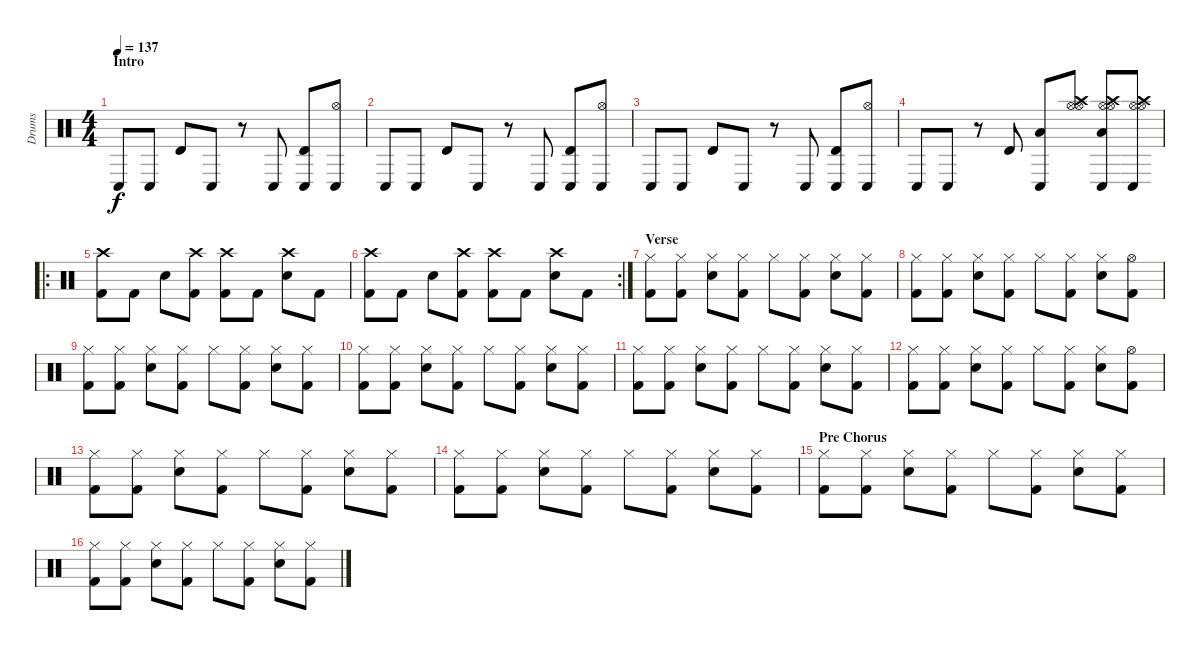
\track ("Drums" "Drums") {instrument percussion}
\staff {score}
\articulation defaults
\ts (4 4)
\section ("" "Intro")
\tempo 137
\clef neutral
\ks c "Conga low (hit)".8{dy f} "Conga low (hit)".8 "Timbale high (hit)".8 "Conga low (hit)".8
r.8 "Conga low (hit)".8 ("Conga low (hit)" "Timbale high (hit)").8 ("Conga low (hit)" "Hi-Hat (open)").8 |
"Conga low (hit)".8 "Conga low (hit)".8 "Timbale high (hit)".8 "Conga low (hit)".8 r.8 "Conga low (hit)".8 ("Conga low (hit)" "Timbale high (hit)").8 ("Conga low (hit)" "Hi-Hat (open)").8 |
"Conga low (hit)".8 "Conga low (hit)".8 "Timbale high (hit)".8 "Conga low (hit)".8 r.8 "Conga low (hit)".8 ("Conga low (hit)" "Timbale high (hit)").8 ("Conga low (hit)" "Hi-Hat (open)").8 |
"Conga low (hit)".8 "Conga low (hit)".8 r.8 "Timbale high (hit)".8 ("Conga low (hit)" "Low Tom (hit)").8 ("Hi-Hat (open)" "Crash high (hit)" "Hi-Hat (open)").8 ("Conga low (hit)" "Low Tom (hit)" "Crash high (hit)" "Hi-Hat (open)" "Hi-Hat (open)").8 ("Conga low (hit)" "Crash high (hit)" "Hi-Hat (open)" "Hi-Hat (open)").8 |
\ro
("Kick (hit) 2" "Crash high (hit)").8 "Kick (hit) 2".8 "Snare (hit) 2".8 ("Kick (hit) 2" "Crash high (hit)").8 ("Kick (hit) 2" "Crash high (hit)").8 "Kick (hit) 2".8 ("Snare (hit) 2" "Crash high (hit)").8 "Kick (hit) 2".8 |
\rc 2
("Kick (hit) 2" "Crash high (hit)").8 "Kick (hit) 2".8 "Snare (hit) 2".8 ("Kick (hit) 2" "Crash high (hit)").8 ("Kick (hit) 2" "Crash high (hit)").8 "Kick (hit) 2".8 ("Snare (hit) 2" "Crash high (hit)").8 "Kick (hit) 2".8 |
\section ("" "Verse")
("Kick (hit) 2" "Hi-Hat (closed)").8 ("Kick (hit) 2" "Hi-Hat (closed)").8 ("Snare (hit) 2" "Hi-Hat (closed)").8 ("Kick (hit) 2" "Hi-Hat (closed)").8 "Hi-Hat (closed)".8 ("Kick (hit) 2" "Hi-Hat (closed)").8 ("Snare (hit) 2" "Hi-Hat (closed)").8 ("Kick (hit) 2" "Hi-Hat (closed)").8 |
("Kick (hit) 2" "Hi-Hat (closed)").8 ("Kick (hit) 2" "Hi-Hat (closed)").8 ("Snare (hit) 2" "Hi-Hat (closed)").8 ("Kick (hit) 2" "Hi-Hat (closed)").8 "Hi-Hat (closed)".8 ("Kick (hit) 2" "Hi-Hat (closed)").8 ("Snare (hit) 2" "Hi-Hat (closed)").8 ("Kick (hit) 2" "Hi-Hat (open)").8 |
("Kick (hit) 2" "Hi-Hat (closed)").8 ("Kick (hit) 2" "Hi-Hat (closed)").8 ("Snare (hit) 2" "Hi-Hat (closed)").8 ("Kick (hit) 2" "Hi-Hat (closed)").8 "Hi-Hat (closed)".8 ("Kick (hit) 2" "Hi-Hat (closed)").8 ("Snare (hit) 2" "Hi-Hat (closed)").8 ("Kick (hit) 2" "Hi-Hat (closed)").8 |
("Kick (hit) 2" "Hi-Hat (closed)").8 ("Kick (hit) 2" "Hi-Hat (closed)").8 ("Snare (hit) 2" "Hi-Hat (closed)").8 ("Kick (hit) 2" "Hi-Hat (closed)").8 "Hi-Hat (closed)".8 ("Kick (hit) 2" "Hi-Hat (closed)").8 ("Snare (hit) 2" "Hi-Hat (closed)").8 ("Kick (hit) 2" "Hi-Hat (closed)").8 |
("Kick (hit) 2" "Hi-Hat (closed)").8 ("Kick (hit) 2" "Hi-Hat (closed)").8 ("Snare (hit) 2" "Hi-Hat (closed)").8 ("Kick (hit) 2" "Hi-Hat (closed)").8 "Hi-Hat (closed)".8 ("Kick (hit) 2" "Hi-Hat (closed)").8 ("Snare (hit) 2" "Hi-Hat (closed)").8 ("Kick (hit) 2" "Hi-Hat (closed)").8 |
("Kick (hit) 2" "Hi-Hat (closed)").8 ("Kick (hit) 2" "Hi-Hat (closed)").8 ("Snare (hit) 2" "Hi-Hat (closed)").8 ("Kick (hit) 2" "Hi-Hat (closed)").8 "Hi-Hat (closed)".8 ("Kick (hit) 2" "Hi-Hat (closed)").8 ("Snare (hit) 2" "Hi-Hat (closed)").8 ("Kick (hit) 2" "Hi-Hat (open)").8 |
("Kick (hit) 2" "Hi-Hat (closed)").8 ("Kick (hit) 2" "Hi-Hat (closed)").8 ("Snare (hit) 2" "Hi-Hat (closed)").8 ("Kick (hit) 2" "Hi-Hat (closed)").8 "Hi-Hat (closed)".8 ("Kick (hit) 2" "Hi-Hat (closed)").8 ("Snare (hit) 2" "Hi-Hat (closed)").8 ("Kick (hit) 2" "Hi-Hat (closed)").8 |
("Kick (hit) 2" "Hi-Hat (closed)").8 ("Kick (hit) 2" "Hi-Hat (closed)").8 ("Snare (hit) 2" "Hi-Hat (closed)").8 ("Kick (hit) 2" "Hi-Hat (closed)").8 "Hi-Hat (closed)".8 ("Kick (hit) 2" "Hi-Hat (closed)").8 ("Snare (hit) 2" "Hi-Hat (closed)").8 ("Kick (hit) 2" "Hi-Hat (closed)").8 |
\section ("" "Pre Chorus")
("Kick (hit) 2" "Hi-Hat (closed)").8 ("Kick (hit) 2" "Hi-Hat (closed)").8 ("Snare (hit) 2" "Hi-Hat (closed)").8 ("Kick (hit) 2" "Hi-Hat (closed)").8 "Hi-Hat (closed)".8 ("Kick (hit) 2" "Hi-Hat (closed)").8 ("Snare (hit) 2" "Hi-Hat (closed)").8 ("Kick (hit) 2" "Hi-Hat (closed)").8 |
("Kick (hit) 2" "Hi-Hat (closed)").8 ("Kick (hit) 2" "Hi-Hat (closed)").8 ("Snare (hit) 2" "Hi-Hat (closed)").8 ("Kick (hit) 2" "Hi-Hat (closed)").8 "Hi-Hat (closed)".8 ("Kick (hit) 2" "Hi-Hat (closed)").8 ("Snare (hit) 2" "Hi-Hat (closed)").8 ("Kick (hit) 2" "Hi-Hat (closed)").8
